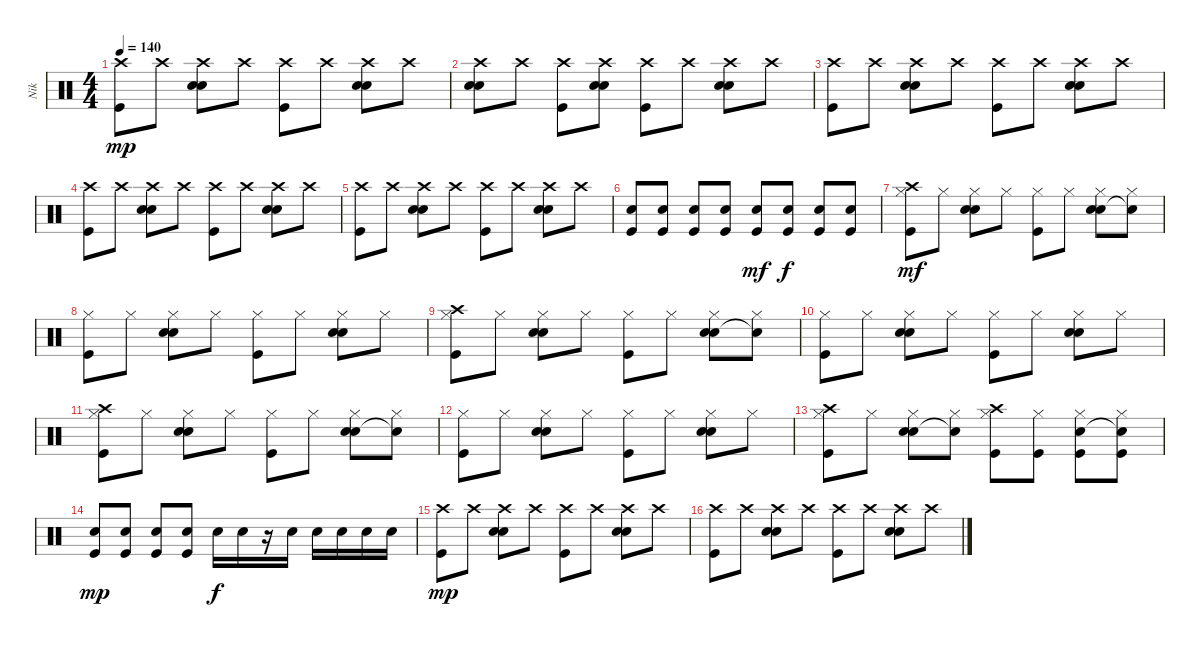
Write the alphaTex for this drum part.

\track ("Nik" "Nik") {instrument percussion}
\staff {score}
\articulation defaults
\ts (4 4)
\tempo 140
\clef neutral
\ks c
("Kick (hit)" "Crash high (hit)").8{dy mp} "Crash high (hit)".8 ("Electric Snare (hit)" "Electric Snare (hit)" "Crash high (hit)").8 "Crash high (hit)".8 ("Kick (hit)" "Crash high (hit)").8 "Crash high (hit)".8 ("Electric Snare (hit)" "Electric Snare (hit)" "Crash high (hit)").8 "Crash high (hit)".8 |
("Electric Snare (hit)" "Electric Snare (hit)" "Crash high (hit)").8 "Crash high (hit)".8 ("Kick (hit)" "Crash high (hit)").8 ("Electric Snare (hit)" "Electric Snare (hit)" "Crash high (hit)").8 ("Kick (hit)" "Crash high (hit)").8 "Crash high (hit)".8 ("Electric Snare (hit)" "Electric Snare (hit)" "Crash high (hit)").8 "Crash high (hit)".8 |
("Kick (hit)" "Crash high (hit)").8 "Crash high (hit)".8 ("Electric Snare (hit)" "Electric Snare (hit)" "Crash high (hit)").8 "Crash high (hit)".8 ("Kick (hit)" "Crash high (hit)").8 "Crash high (hit)".8 ("Electric Snare (hit)" "Electric Snare (hit)" "Crash high (hit)").8 "Crash high (hit)".8 |
("Kick (hit)" "Crash high (hit)").8 "Crash high (hit)".8 ("Electric Snare (hit)" "Electric Snare (hit)" "Crash high (hit)").8 "Crash high (hit)".8 ("Kick (hit)" "Crash high (hit)").8 "Crash high (hit)".8 ("Electric Snare (hit)" "Electric Snare (hit)" "Crash high (hit)").8 "Crash high (hit)".8 |
("Kick (hit)" "Crash high (hit)").8 "Crash high (hit)".8 ("Electric Snare (hit)" "Electric Snare (hit)" "Crash high (hit)").8 "Crash high (hit)".8 ("Kick (hit)" "Crash high (hit)").8 "Crash high (hit)".8 ("Electric Snare (hit)" "Electric Snare (hit)" "Crash high (hit)").8 "Crash high (hit)".8 |
("Kick (hit)" "Electric Snare (hit)").8 ("Kick (hit)" "Electric Snare (hit)").8 ("Kick (hit)" "Electric Snare (hit)").8 ("Kick (hit)" "Electric Snare (hit)").8 ("Kick (hit)" "Electric Snare (hit)").8{dy mf} ("Kick (hit)" "Electric Snare (hit)").8{dy f} ("Kick (hit)" "Electric Snare (hit)").8 ("Kick (hit)" "Electric Snare (hit)").8 |
("Crash high (hit)" "Kick (hit)" "Hi-Hat (closed)").8{dy mf} "Hi-Hat (closed)".8 ("Electric Snare (hit)" "Electric Snare (hit)" "Hi-Hat (closed)").8 "Hi-Hat (closed)".8 ("Kick (hit)" "Hi-Hat (closed)").8 "Hi-Hat (closed)".8 ("Electric Snare (hit)" "Electric Snare (hit)" "Hi-Hat (closed)").8 ("Snare (hit)"{t} "Hi-Hat (closed)").8 |
("Kick (hit)" "Hi-Hat (closed)").8 "Hi-Hat (closed)".8 ("Electric Snare (hit)" "Electric Snare (hit)" "Hi-Hat (closed)").8 "Hi-Hat (closed)".8 ("Kick (hit)" "Hi-Hat (closed)").8 "Hi-Hat (closed)".8 ("Electric Snare (hit)" "Electric Snare (hit)" "Hi-Hat (closed)").8 "Hi-Hat (closed)".8 |
("Crash high (hit)" "Kick (hit)" "Hi-Hat (closed)").8 "Hi-Hat (closed)".8 ("Electric Snare (hit)" "Electric Snare (hit)" "Hi-Hat (closed)").8 "Hi-Hat (closed)".8 ("Kick (hit)" "Hi-Hat (closed)").8 "Hi-Hat (closed)".8 ("Electric Snare (hit)" "Electric Snare (hit)" "Hi-Hat (closed)").8 ("Snare (hit)"{t} "Hi-Hat (closed)").8 |
("Kick (hit)" "Hi-Hat (closed)").8 "Hi-Hat (closed)".8 ("Electric Snare (hit)" "Electric Snare (hit)" "Hi-Hat (closed)").8 "Hi-Hat (closed)".8 ("Kick (hit)" "Hi-Hat (closed)").8 "Hi-Hat (closed)".8 ("Electric Snare (hit)" "Electric Snare (hit)" "Hi-Hat (closed)").8 "Hi-Hat (closed)".8 |
("Crash high (hit)" "Kick (hit)" "Hi-Hat (closed)").8 "Hi-Hat (closed)".8 ("Electric Snare (hit)" "Electric Snare (hit)" "Hi-Hat (closed)").8 "Hi-Hat (closed)".8 ("Kick (hit)" "Hi-Hat (closed)").8 "Hi-Hat (closed)".8 ("Electric Snare (hit)" "Electric Snare (hit)" "Hi-Hat (closed)").8 ("Snare (hit)"{t} "Hi-Hat (closed)").8 |
("Kick (hit)" "Hi-Hat (closed)").8 "Hi-Hat (closed)".8 ("Electric Snare (hit)" "Electric Snare (hit)" "Hi-Hat (closed)").8 "Hi-Hat (closed)".8 ("Kick (hit)" "Hi-Hat (closed)").8 "Hi-Hat (closed)".8 ("Electric Snare (hit)" "Electric Snare (hit)" "Hi-Hat (closed)").8 "Hi-Hat (closed)".8 |
("Crash high (hit)" "Kick (hit)" "Hi-Hat (closed)").8 "Hi-Hat (closed)".8 ("Electric Snare (hit)" "Electric Snare (hit)" "Hi-Hat (closed)").8 ("Snare (hit)"{t} "Hi-Hat (closed)").8 ("Crash high (hit)" "Kick (hit)" "Hi-Hat (closed)").8 ("Kick (hit)" "Hi-Hat (closed)").8 ("Electric Snare (hit)" "Kick (hit)" "Hi-Hat (closed)").8 ("Snare (hit)"{t} "Kick (hit)" "Hi-Hat (closed)").8 |
("Kick (hit)" "Electric Snare (hit)").8{dy mp} ("Kick (hit)" "Electric Snare (hit)").8 ("Kick (hit)" "Electric Snare (hit)").8 ("Kick (hit)" "Electric Snare (hit)").8 "Electric Snare (hit)".16{dy f} "Electric Snare (hit)".16 r.16 "Electric Snare (hit)".16 "Electric Snare (hit)".16 "Electric Snare (hit)".16 "Electric Snare (hit)".16 "Electric Snare (hit)".16 |
("Kick (hit)" "Crash high (hit)").8{dy mp} "Crash high (hit)".8 ("Electric Snare (hit)" "Electric Snare (hit)" "Crash high (hit)").8 "Crash high (hit)".8 ("Kick (hit)" "Crash high (hit)").8 "Crash high (hit)".8 ("Electric Snare (hit)" "Electric Snare (hit)" "Crash high (hit)").8 "Crash high (hit)".8 |
("Kick (hit)" "Crash high (hit)").8 "Crash high (hit)".8 ("Electric Snare (hit)" "Electric Snare (hit)" "Crash high (hit)").8 "Crash high (hit)".8 ("Kick (hit)" "Crash high (hit)").8 "Crash high (hit)".8 ("Electric Snare (hit)" "Electric Snare (hit)" "Crash high (hit)").8 "Crash high (hit)".8
